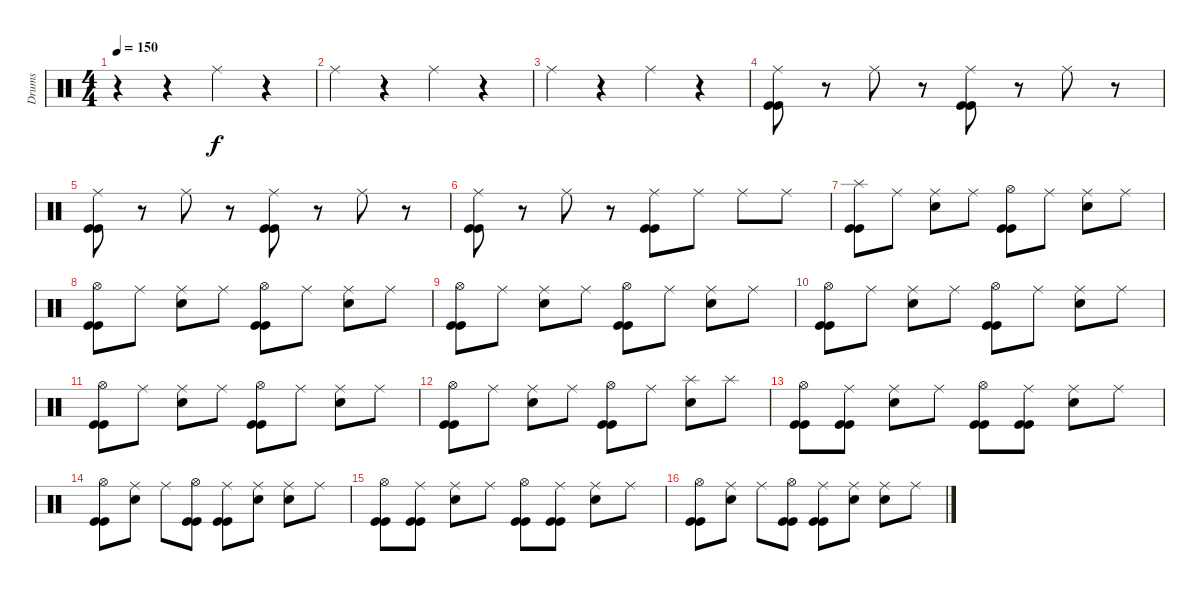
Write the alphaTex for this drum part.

\track ("Drums" "Drums") {instrument percussion}
\staff {score}
\articulation defaults
\ts (4 4)
\tempo 150
\clef neutral
\ks c
r.4{dy f} r.4 "Ride (middle)".4 r.4 |
"Ride (middle)".4 r.4 "Ride (middle)".4 r.4 |
"Ride (middle)".4 r.4 "Ride (middle)".4 r.4 |
("Ride (middle)" "Kick (hit)" "Kick (hit)").8 r.8 "Ride (middle)".8 r.8 ("Ride (middle)" "Kick (hit)" "Kick (hit)").8 r.8 "Ride (middle)".8 r.8 |
("Ride (middle)" "Kick (hit)" "Kick (hit)").8 r.8 "Ride (middle)".8 r.8 ("Ride (middle)" "Kick (hit)" "Kick (hit)").8 r.8 "Ride (middle)".8 r.8 |
("Ride (middle)" "Kick (hit)" "Kick (hit)").8 r.8 "Ride (middle)".8 r.8 ("Ride (middle)" "Kick (hit)" "Kick (hit)").8 "Ride (middle)".8 "Ride (middle)".8 "Ride (middle)".8 |
("Splash (hit)" "Kick (hit)" "Kick (hit)").8 "Ride (middle)".8 ("Ride (middle)" "Snare (hit) 2").8 "Ride (middle)".8 ("Hi-Hat (open)" "Kick (hit)" "Kick (hit)").8 "Ride (middle)".8 ("Ride (middle)" "Snare (hit) 2").8 "Ride (middle)".8 |
("Hi-Hat (open)" "Kick (hit)" "Kick (hit)").8 "Ride (middle)".8 ("Ride (middle)" "Snare (hit) 2").8 "Ride (middle)".8 ("Hi-Hat (open)" "Kick (hit)" "Kick (hit)").8 "Ride (middle)".8 ("Ride (middle)" "Snare (hit) 2").8 "Ride (middle)".8 |
("Hi-Hat (open)" "Kick (hit)" "Kick (hit)").8 "Ride (middle)".8 ("Ride (middle)" "Snare (hit) 2").8 "Ride (middle)".8 ("Hi-Hat (open)" "Kick (hit)" "Kick (hit)").8 "Ride (middle)".8 ("Ride (middle)" "Snare (hit) 2").8 "Ride (middle)".8 |
("Hi-Hat (open)" "Kick (hit)" "Kick (hit)").8 "Ride (middle)".8 ("Ride (middle)" "Snare (hit) 2").8 "Ride (middle)".8 ("Hi-Hat (open)" "Kick (hit)" "Kick (hit)").8 "Ride (middle)".8 ("Ride (middle)" "Snare (hit) 2").8 "Ride (middle)".8 |
("Hi-Hat (open)" "Kick (hit)" "Kick (hit)").8 "Ride (middle)".8 ("Ride (middle)" "Snare (hit) 2").8 "Ride (middle)".8 ("Hi-Hat (open)" "Kick (hit)" "Kick (hit)").8 "Ride (middle)".8 ("Ride (middle)" "Snare (hit) 2").8 "Ride (middle)".8 |
("Hi-Hat (open)" "Kick (hit)" "Kick (hit)").8 "Ride (middle)".8 ("Ride (middle)" "Snare (hit) 2").8 "Ride (middle)".8 ("Hi-Hat (open)" "Kick (hit)" "Kick (hit)").8 "Ride (middle)".8 ("Splash (hit)" "Snare (hit) 2").8 "Splash (hit)".8 |
("Hi-Hat (open)" "Kick (hit)" "Kick (hit)").8 ("Ride (middle)" "Kick (hit)" "Kick (hit)").8 ("Ride (middle)" "Snare (hit) 2").8 "Ride (middle)".8 ("Hi-Hat (open)" "Kick (hit)" "Kick (hit)").8 ("Ride (middle)" "Kick (hit)" "Kick (hit)").8 ("Ride (middle)" "Snare (hit) 2").8 "Ride (middle)".8 |
("Hi-Hat (open)" "Kick (hit)" "Kick (hit)").8 ("Ride (middle)" "Snare (hit) 2").8 "Ride (middle)".8 ("Hi-Hat (open)" "Kick (hit)" "Kick (hit)").8 ("Ride (middle)" "Kick (hit)" "Kick (hit)").8 ("Ride (middle)" "Snare (hit) 2").8 ("Ride (middle)" "Snare (hit) 2").8 "Ride (middle)".8 |
("Hi-Hat (open)" "Kick (hit)" "Kick (hit)").8 ("Ride (middle)" "Kick (hit)" "Kick (hit)").8 ("Ride (middle)" "Snare (hit) 2").8 "Ride (middle)".8 ("Hi-Hat (open)" "Kick (hit)" "Kick (hit)").8 ("Ride (middle)" "Kick (hit)" "Kick (hit)").8 ("Ride (middle)" "Snare (hit) 2").8 "Ride (middle)".8 |
("Hi-Hat (open)" "Kick (hit)" "Kick (hit)").8 ("Ride (middle)" "Snare (hit) 2").8 "Ride (middle)".8 ("Hi-Hat (open)" "Kick (hit)" "Kick (hit)").8 ("Ride (middle)" "Kick (hit)" "Kick (hit)").8 ("Ride (middle)" "Snare (hit) 2").8 ("Ride (middle)" "Snare (hit) 2").8 "Ride (middle)".8
